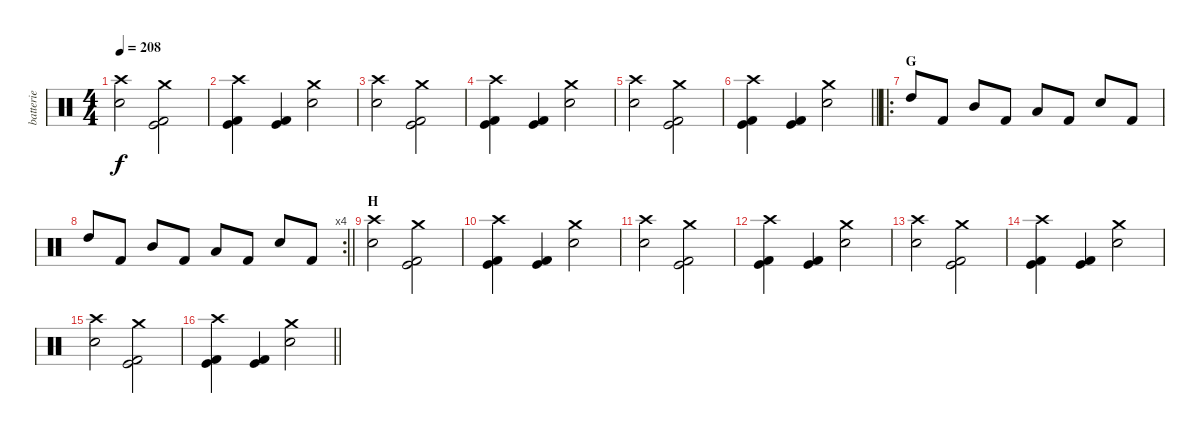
\track ("batterie" "batterie") {instrument percussion}
\staff {score}
\articulation defaults
\ts (4 4)
\tempo 208
\clef neutral
\ks c
("Snare (hit) 2" "Crash high (hit)").2{dy f} ("Crash medium (hit)" "Kick (hit)" "Kick (hit) 2").2 |
("Crash high (hit)" "Kick (hit)" "Kick (hit) 2").4 ("Kick (hit)" "Kick (hit) 2").4 ("Crash medium (hit)" "Snare (hit) 2").2 |
("Snare (hit) 2" "Crash high (hit)").2 ("Crash medium (hit)" "Kick (hit)" "Kick (hit) 2").2 |
("Crash high (hit)" "Kick (hit)" "Kick (hit) 2").4 ("Kick (hit)" "Kick (hit) 2").4 ("Crash medium (hit)" "Snare (hit) 2").2 |
("Snare (hit) 2" "Crash high (hit)").2 ("Crash medium (hit)" "Kick (hit)" "Kick (hit) 2").2 |
\barLineRight lightlight
("Crash high (hit)" "Kick (hit)" "Kick (hit) 2").4 ("Kick (hit)" "Kick (hit) 2").4 ("Crash medium (hit)" "Snare (hit) 2").2 |
\ro
\section ("" "G")
"High Tom (hit)".8 "Kick (hit) 2".8 "Mid Tom (hit)".8 "Kick (hit) 2".8 "Low Tom (hit)".8 "Kick (hit) 2".8 "Snare (hit) 2".8 "Kick (hit) 2".8 |
\rc 4
\barLineRight lightlight "High Tom (hit)".8 "Kick (hit) 2".8 "Mid Tom (hit)".8 "Kick (hit) 2".8 "Low Tom (hit)".8 "Kick (hit) 2".8 "Snare (hit) 2".8 "Kick (hit) 2".8
|
\section ("" "H")
("Snare (hit) 2" "Crash high (hit)").2 ("Crash medium (hit)" "Kick (hit)" "Kick (hit) 2").2 |
("Crash high (hit)" "Kick (hit)" "Kick (hit) 2").4 ("Kick (hit)" "Kick (hit) 2").4 ("Crash medium (hit)" "Snare (hit) 2").2 |
("Snare (hit) 2" "Crash high (hit)").2 ("Crash medium (hit)" "Kick (hit)" "Kick (hit) 2").2 |
("Crash high (hit)" "Kick (hit)" "Kick (hit) 2").4 ("Kick (hit)" "Kick (hit) 2").4 ("Crash medium (hit)" "Snare (hit) 2").2 |
("Snare (hit) 2" "Crash high (hit)").2 ("Crash medium (hit)" "Kick (hit)" "Kick (hit) 2").2 |
("Crash high (hit)" "Kick (hit)" "Kick (hit) 2").4 ("Kick (hit)" "Kick (hit) 2").4 ("Crash medium (hit)" "Snare (hit) 2").2 |
("Snare (hit) 2" "Crash high (hit)").2 ("Crash medium (hit)" "Kick (hit)" "Kick (hit) 2").2 |
\barLineRight lightlight
("Crash high (hit)" "Kick (hit)" "Kick (hit) 2").4 ("Kick (hit)" "Kick (hit) 2").4 ("Crash medium (hit)" "Snare (hit) 2").2
